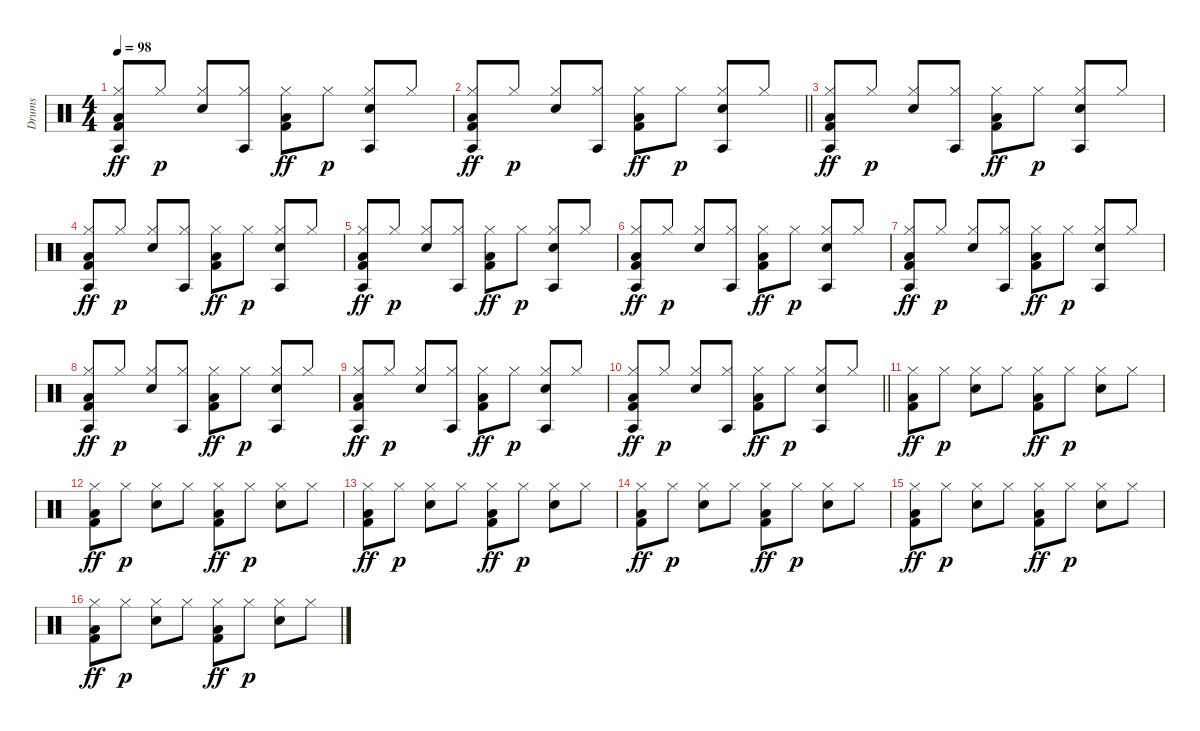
\track ("Drums" "Drums") {instrument percussion}
\staff {score}
\articulation defaults
\ts (4 4)
\tempo 98
\clef neutral
\ks c
("Agogo tow (hit)" "Hi-Hat (closed)" "Low Floor Tom (hit)" "Kick (hit) 2").8{dy ff} "Hi-Hat (closed)".8{dy p} ("Hi-Hat (closed)" "Snare (hit) 2").8 ("Agogo tow (hit)" "Hi-Hat (closed)").8 ("Hi-Hat (closed)" "Low Floor Tom (hit)" "Kick (hit) 2").8{dy ff} "Hi-Hat (closed)".8{dy p} ("Agogo tow (hit)" "Hi-Hat (closed)" "Snare (hit) 2").8 "Hi-Hat (closed)".8 |
\barLineRight lightlight
("Agogo tow (hit)" "Hi-Hat (closed)" "Low Floor Tom (hit)" "Kick (hit) 2").8{dy ff} "Hi-Hat (closed)".8{dy p} ("Hi-Hat (closed)" "Snare (hit) 2").8 ("Agogo tow (hit)" "Hi-Hat (closed)").8 ("Hi-Hat (closed)" "Low Floor Tom (hit)" "Kick (hit) 2").8{dy ff} "Hi-Hat (closed)".8{dy p} ("Agogo tow (hit)" "Hi-Hat (closed)" "Snare (hit) 2").8 "Hi-Hat (closed)".8 |
\section ("" "")
("Agogo tow (hit)" "Hi-Hat (closed)" "Low Floor Tom (hit)" "Kick (hit) 2").8{dy ff} "Hi-Hat (closed)".8{dy p} ("Hi-Hat (closed)" "Snare (hit) 2").8 ("Agogo tow (hit)" "Hi-Hat (closed)").8 ("Hi-Hat (closed)" "Low Floor Tom (hit)" "Kick (hit) 2").8{dy ff} "Hi-Hat (closed)".8{dy p} ("Agogo tow (hit)" "Hi-Hat (closed)" "Snare (hit) 2").8 "Hi-Hat (closed)".8 |
("Agogo tow (hit)" "Hi-Hat (closed)" "Low Floor Tom (hit)" "Kick (hit) 2").8{dy ff} "Hi-Hat (closed)".8{dy p} ("Hi-Hat (closed)" "Snare (hit) 2").8 ("Agogo tow (hit)" "Hi-Hat (closed)").8 ("Hi-Hat (closed)" "Low Floor Tom (hit)" "Kick (hit) 2").8{dy ff} "Hi-Hat (closed)".8{dy p} ("Agogo tow (hit)" "Hi-Hat (closed)" "Snare (hit) 2").8 "Hi-Hat (closed)".8 |
("Agogo tow (hit)" "Hi-Hat (closed)" "Low Floor Tom (hit)" "Kick (hit) 2").8{dy ff} "Hi-Hat (closed)".8{dy p} ("Hi-Hat (closed)" "Snare (hit) 2").8 ("Agogo tow (hit)" "Hi-Hat (closed)").8 ("Hi-Hat (closed)" "Low Floor Tom (hit)" "Kick (hit) 2").8{dy ff} "Hi-Hat (closed)".8{dy p} ("Agogo tow (hit)" "Hi-Hat (closed)" "Snare (hit) 2").8 "Hi-Hat (closed)".8 |
("Agogo tow (hit)" "Hi-Hat (closed)" "Low Floor Tom (hit)" "Kick (hit) 2").8{dy ff} "Hi-Hat (closed)".8{dy p} ("Hi-Hat (closed)" "Snare (hit) 2").8 ("Agogo tow (hit)" "Hi-Hat (closed)").8 ("Hi-Hat (closed)" "Low Floor Tom (hit)" "Kick (hit) 2").8{dy ff} "Hi-Hat (closed)".8{dy p} ("Agogo tow (hit)" "Hi-Hat (closed)" "Snare (hit) 2").8 "Hi-Hat (closed)".8 |
("Agogo tow (hit)" "Hi-Hat (closed)" "Low Floor Tom (hit)" "Kick (hit) 2").8{dy ff} "Hi-Hat (closed)".8{dy p} ("Hi-Hat (closed)" "Snare (hit) 2").8 ("Agogo tow (hit)" "Hi-Hat (closed)").8 ("Hi-Hat (closed)" "Low Floor Tom (hit)" "Kick (hit) 2").8{dy ff} "Hi-Hat (closed)".8{dy p} ("Agogo tow (hit)" "Hi-Hat (closed)" "Snare (hit) 2").8 "Hi-Hat (closed)".8 |
("Agogo tow (hit)" "Hi-Hat (closed)" "Low Floor Tom (hit)" "Kick (hit) 2").8{dy ff} "Hi-Hat (closed)".8{dy p} ("Hi-Hat (closed)" "Snare (hit) 2").8 ("Agogo tow (hit)" "Hi-Hat (closed)").8 ("Hi-Hat (closed)" "Low Floor Tom (hit)" "Kick (hit) 2").8{dy ff} "Hi-Hat (closed)".8{dy p} ("Agogo tow (hit)" "Hi-Hat (closed)" "Snare (hit) 2").8 "Hi-Hat (closed)".8 |
("Agogo tow (hit)" "Hi-Hat (closed)" "Low Floor Tom (hit)" "Kick (hit) 2").8{dy ff} "Hi-Hat (closed)".8{dy p} ("Hi-Hat (closed)" "Snare (hit) 2").8 ("Agogo tow (hit)" "Hi-Hat (closed)").8 ("Hi-Hat (closed)" "Low Floor Tom (hit)" "Kick (hit) 2").8{dy ff} "Hi-Hat (closed)".8{dy p} ("Agogo tow (hit)" "Hi-Hat (closed)" "Snare (hit) 2").8 "Hi-Hat (closed)".8 |
\barLineRight lightlight
("Agogo tow (hit)" "Hi-Hat (closed)" "Low Floor Tom (hit)" "Kick (hit) 2").8{dy ff} "Hi-Hat (closed)".8{dy p} ("Hi-Hat (closed)" "Snare (hit) 2").8 ("Agogo tow (hit)" "Hi-Hat (closed)").8 ("Hi-Hat (closed)" "Low Floor Tom (hit)" "Kick (hit) 2").8{dy ff} "Hi-Hat (closed)".8{dy p} ("Agogo tow (hit)" "Hi-Hat (closed)" "Snare (hit) 2").8 "Hi-Hat (closed)".8 |
\section ("" "")
("Hi-Hat (closed)" "Low Floor Tom (hit)" "Kick (hit) 2").8{dy ff} "Hi-Hat (closed)".8{dy p} ("Hi-Hat (closed)" "Snare (hit) 2").8 "Hi-Hat (closed)".8 ("Hi-Hat (closed)" "Low Floor Tom (hit)" "Kick (hit) 2").8{dy ff} "Hi-Hat (closed)".8{dy p} ("Hi-Hat (closed)" "Snare (hit) 2").8 "Hi-Hat (closed)".8 |
("Hi-Hat (closed)" "Low Floor Tom (hit)" "Kick (hit) 2").8{dy ff} "Hi-Hat (closed)".8{dy p} ("Hi-Hat (closed)" "Snare (hit) 2").8 "Hi-Hat (closed)".8 ("Hi-Hat (closed)" "Low Floor Tom (hit)" "Kick (hit) 2").8{dy ff} "Hi-Hat (closed)".8{dy p} ("Hi-Hat (closed)" "Snare (hit) 2").8 "Hi-Hat (closed)".8 |
("Hi-Hat (closed)" "Low Floor Tom (hit)" "Kick (hit) 2").8{dy ff} "Hi-Hat (closed)".8{dy p} ("Hi-Hat (closed)" "Snare (hit) 2").8 "Hi-Hat (closed)".8 ("Hi-Hat (closed)" "Low Floor Tom (hit)" "Kick (hit) 2").8{dy ff} "Hi-Hat (closed)".8{dy p} ("Hi-Hat (closed)" "Snare (hit) 2").8 "Hi-Hat (closed)".8 |
("Hi-Hat (closed)" "Low Floor Tom (hit)" "Kick (hit) 2").8{dy ff} "Hi-Hat (closed)".8{dy p} ("Hi-Hat (closed)" "Snare (hit) 2").8 "Hi-Hat (closed)".8 ("Hi-Hat (closed)" "Low Floor Tom (hit)" "Kick (hit) 2").8{dy ff} "Hi-Hat (closed)".8{dy p} ("Hi-Hat (closed)" "Snare (hit) 2").8 "Hi-Hat (closed)".8 |
("Hi-Hat (closed)" "Low Floor Tom (hit)" "Kick (hit) 2").8{dy ff} "Hi-Hat (closed)".8{dy p} ("Hi-Hat (closed)" "Snare (hit) 2").8 "Hi-Hat (closed)".8 ("Hi-Hat (closed)" "Low Floor Tom (hit)" "Kick (hit) 2").8{dy ff} "Hi-Hat (closed)".8{dy p} ("Hi-Hat (closed)" "Snare (hit) 2").8 "Hi-Hat (closed)".8 |
("Hi-Hat (closed)" "Low Floor Tom (hit)" "Kick (hit) 2").8{dy ff} "Hi-Hat (closed)".8{dy p} ("Hi-Hat (closed)" "Snare (hit) 2").8 "Hi-Hat (closed)".8 ("Hi-Hat (closed)" "Low Floor Tom (hit)" "Kick (hit) 2").8{dy ff} "Hi-Hat (closed)".8{dy p} ("Hi-Hat (closed)" "Snare (hit) 2").8 "Hi-Hat (closed)".8
